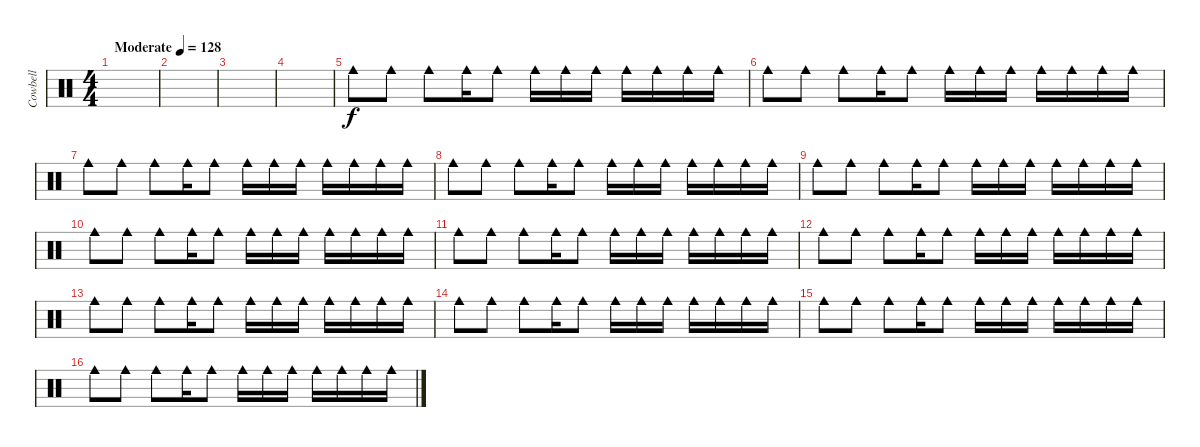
\track ("Cowbell" "Cowbell") {instrument percussion}
\staff {score}
\articulation defaults
\ts (4 4)
\tempo (128 "Moderate")
\clef neutral
\ks c
|
|
|
|
"Cowbell medium (hit)".8 "Cowbell medium (hit)".8 "Cowbell medium (hit)".8 "Cowbell medium (hit)".16 "Cowbell medium (hit)".8 "Cowbell medium (hit)".16 "Cowbell medium (hit)".16 "Cowbell medium (hit)".16 "Cowbell medium (hit)".16 "Cowbell medium (hit)".16 "Cowbell medium (hit)".16 "Cowbell medium (hit)".16 |
"Cowbell medium (hit)".8 "Cowbell medium (hit)".8 "Cowbell medium (hit)".8 "Cowbell medium (hit)".16 "Cowbell medium (hit)".8 "Cowbell medium (hit)".16 "Cowbell medium (hit)".16 "Cowbell medium (hit)".16 "Cowbell medium (hit)".16 "Cowbell medium (hit)".16 "Cowbell medium (hit)".16 "Cowbell medium (hit)".16 |
"Cowbell medium (hit)".8 "Cowbell medium (hit)".8 "Cowbell medium (hit)".8 "Cowbell medium (hit)".16 "Cowbell medium (hit)".8 "Cowbell medium (hit)".16 "Cowbell medium (hit)".16 "Cowbell medium (hit)".16 "Cowbell medium (hit)".16 "Cowbell medium (hit)".16 "Cowbell medium (hit)".16 "Cowbell medium (hit)".16 |
"Cowbell medium (hit)".8 "Cowbell medium (hit)".8 "Cowbell medium (hit)".8 "Cowbell medium (hit)".16 "Cowbell medium (hit)".8 "Cowbell medium (hit)".16 "Cowbell medium (hit)".16 "Cowbell medium (hit)".16 "Cowbell medium (hit)".16 "Cowbell medium (hit)".16 "Cowbell medium (hit)".16 "Cowbell medium (hit)".16 |
"Cowbell medium (hit)".8 "Cowbell medium (hit)".8 "Cowbell medium (hit)".8 "Cowbell medium (hit)".16 "Cowbell medium (hit)".8 "Cowbell medium (hit)".16 "Cowbell medium (hit)".16 "Cowbell medium (hit)".16 "Cowbell medium (hit)".16 "Cowbell medium (hit)".16 "Cowbell medium (hit)".16 "Cowbell medium (hit)".16 |
"Cowbell medium (hit)".8 "Cowbell medium (hit)".8 "Cowbell medium (hit)".8 "Cowbell medium (hit)".16 "Cowbell medium (hit)".8 "Cowbell medium (hit)".16 "Cowbell medium (hit)".16 "Cowbell medium (hit)".16 "Cowbell medium (hit)".16 "Cowbell medium (hit)".16 "Cowbell medium (hit)".16 "Cowbell medium (hit)".16 |
"Cowbell medium (hit)".8 "Cowbell medium (hit)".8 "Cowbell medium (hit)".8 "Cowbell medium (hit)".16 "Cowbell medium (hit)".8 "Cowbell medium (hit)".16 "Cowbell medium (hit)".16 "Cowbell medium (hit)".16 "Cowbell medium (hit)".16 "Cowbell medium (hit)".16 "Cowbell medium (hit)".16 "Cowbell medium (hit)".16 |
"Cowbell medium (hit)".8 "Cowbell medium (hit)".8 "Cowbell medium (hit)".8 "Cowbell medium (hit)".16 "Cowbell medium (hit)".8 "Cowbell medium (hit)".16 "Cowbell medium (hit)".16 "Cowbell medium (hit)".16 "Cowbell medium (hit)".16 "Cowbell medium (hit)".16 "Cowbell medium (hit)".16 "Cowbell medium (hit)".16 |
"Cowbell medium (hit)".8 "Cowbell medium (hit)".8 "Cowbell medium (hit)".8 "Cowbell medium (hit)".16 "Cowbell medium (hit)".8 "Cowbell medium (hit)".16 "Cowbell medium (hit)".16 "Cowbell medium (hit)".16 "Cowbell medium (hit)".16 "Cowbell medium (hit)".16 "Cowbell medium (hit)".16 "Cowbell medium (hit)".16 |
"Cowbell medium (hit)".8 "Cowbell medium (hit)".8 "Cowbell medium (hit)".8 "Cowbell medium (hit)".16 "Cowbell medium (hit)".8 "Cowbell medium (hit)".16 "Cowbell medium (hit)".16 "Cowbell medium (hit)".16 "Cowbell medium (hit)".16 "Cowbell medium (hit)".16 "Cowbell medium (hit)".16 "Cowbell medium (hit)".16 |
"Cowbell medium (hit)".8 "Cowbell medium (hit)".8 "Cowbell medium (hit)".8 "Cowbell medium (hit)".16 "Cowbell medium (hit)".8 "Cowbell medium (hit)".16 "Cowbell medium (hit)".16 "Cowbell medium (hit)".16 "Cowbell medium (hit)".16 "Cowbell medium (hit)".16 "Cowbell medium (hit)".16 "Cowbell medium (hit)".16 |
"Cowbell medium (hit)".8 "Cowbell medium (hit)".8 "Cowbell medium (hit)".8 "Cowbell medium (hit)".16 "Cowbell medium (hit)".8 "Cowbell medium (hit)".16 "Cowbell medium (hit)".16 "Cowbell medium (hit)".16 "Cowbell medium (hit)".16 "Cowbell medium (hit)".16 "Cowbell medium (hit)".16 "Cowbell medium (hit)".16
